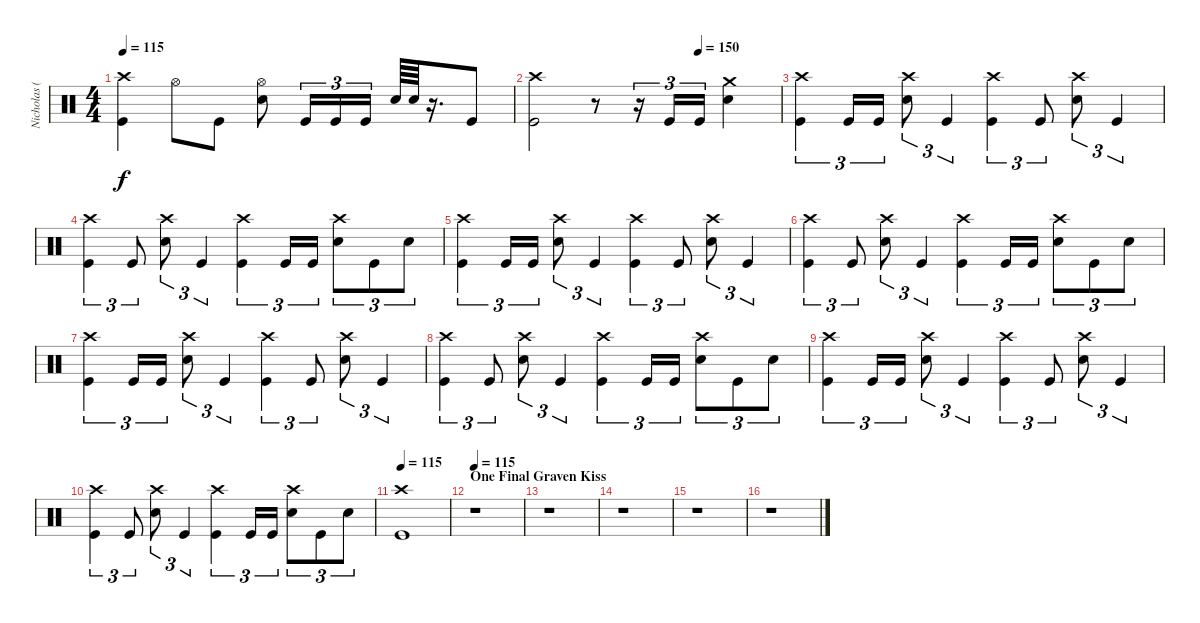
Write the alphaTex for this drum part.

\track ("Nicholas (Drums)" "Nicholas (") {instrument percussion}
\staff {score}
\articulation defaults
\ts (4 4)
\tempo 115
\clef neutral
\ks c
("Crash high (hit)" "Kick (hit)").4{dy f} "Hi-Hat (open)".8 "Kick (hit)".8 ("Hi-Hat (open)" "Electric Snare (hit)").8 "Kick (hit)".16{tu (3 2)} "Kick (hit)".16{tu (3 2)} "Kick (hit)".16{tu (3 2)} "Electric Snare (hit)".64 "Electric Snare (hit)".64 r.16{d} "Kick (hit)".8 |
\tempo (150 0.6666666666666666)
("Crash high (hit)" "Kick (hit)").2 r.8 r.16{tu (3 2)} "Kick (hit)".16{tu (3 2)} "Kick (hit)".16{tu (3 2)} ("Crash medium (hit)" "Electric Snare (hit)").4 |
("Crash high (hit)" "Kick (hit)").4{tu (3 2)} "Kick (hit)".16{tu (3 2)} "Kick (hit)".16{tu (3 2)} ("Crash high (hit)" "Electric Snare (hit)").8{tu (3 2)} "Kick (hit)".4{tu (3 2)} ("Crash high (hit)" "Kick (hit)").4{tu (3 2)} "Kick (hit)".8{tu (3 2)} ("Crash high (hit)" "Electric Snare (hit)").8{tu (3 2)} "Kick (hit)".4{tu (3 2)} |
("Crash high (hit)" "Kick (hit)").4{tu (3 2)} "Kick (hit)".8{tu (3 2)} ("Crash high (hit)" "Electric Snare (hit)").8{tu (3 2)} "Kick (hit)".4{tu (3 2)} ("Crash high (hit)" "Kick (hit)").4{tu (3 2)} "Kick (hit)".16{tu (3 2)} "Kick (hit)".16{tu (3 2)} ("Crash high (hit)" "Electric Snare (hit)").8{tu (3 2)} "Kick (hit)".8{tu (3 2)} "Electric Snare (hit)".8{tu (3 2)} |
("Crash high (hit)" "Kick (hit)").4{tu (3 2)} "Kick (hit)".16{tu (3 2)} "Kick (hit)".16{tu (3 2)} ("Crash high (hit)" "Electric Snare (hit)").8{tu (3 2)} "Kick (hit)".4{tu (3 2)} ("Crash high (hit)" "Kick (hit)").4{tu (3 2)} "Kick (hit)".8{tu (3 2)} ("Crash high (hit)" "Electric Snare (hit)").8{tu (3 2)} "Kick (hit)".4{tu (3 2)} |
("Crash high (hit)" "Kick (hit)").4{tu (3 2)} "Kick (hit)".8{tu (3 2)} ("Crash high (hit)" "Electric Snare (hit)").8{tu (3 2)} "Kick (hit)".4{tu (3 2)} ("Crash high (hit)" "Kick (hit)").4{tu (3 2)} "Kick (hit)".16{tu (3 2)} "Kick (hit)".16{tu (3 2)} ("Crash high (hit)" "Electric Snare (hit)").8{tu (3 2)} "Kick (hit)".8{tu (3 2)} "Electric Snare (hit)".8{tu (3 2)} |
("Crash high (hit)" "Kick (hit)").4{tu (3 2)} "Kick (hit)".16{tu (3 2)} "Kick (hit)".16{tu (3 2)} ("Crash high (hit)" "Electric Snare (hit)").8{tu (3 2)} "Kick (hit)".4{tu (3 2)} ("Crash high (hit)" "Kick (hit)").4{tu (3 2)} "Kick (hit)".8{tu (3 2)} ("Crash high (hit)" "Electric Snare (hit)").8{tu (3 2)} "Kick (hit)".4{tu (3 2)} |
("Crash high (hit)" "Kick (hit)").4{tu (3 2)} "Kick (hit)".8{tu (3 2)} ("Crash high (hit)" "Electric Snare (hit)").8{tu (3 2)} "Kick (hit)".4{tu (3 2)} ("Crash high (hit)" "Kick (hit)").4{tu (3 2)} "Kick (hit)".16{tu (3 2)} "Kick (hit)".16{tu (3 2)} ("Crash high (hit)" "Electric Snare (hit)").8{tu (3 2)} "Kick (hit)".8{tu (3 2)} "Electric Snare (hit)".8{tu (3 2)} |
("Crash high (hit)" "Kick (hit)").4{tu (3 2)} "Kick (hit)".16{tu (3 2)} "Kick (hit)".16{tu (3 2)} ("Crash high (hit)" "Electric Snare (hit)").8{tu (3 2)} "Kick (hit)".4{tu (3 2)} ("Crash high (hit)" "Kick (hit)").4{tu (3 2)} "Kick (hit)".8{tu (3 2)} ("Crash high (hit)" "Electric Snare (hit)").8{tu (3 2)} "Kick (hit)".4{tu (3 2)} |
("Crash high (hit)" "Kick (hit)").4{tu (3 2)} "Kick (hit)".8{tu (3 2)} ("Crash high (hit)" "Electric Snare (hit)").8{tu (3 2)} "Kick (hit)".4{tu (3 2)} ("Crash high (hit)" "Kick (hit)").4{tu (3 2)} "Kick (hit)".16{tu (3 2)} "Kick (hit)".16{tu (3 2)} ("Crash high (hit)" "Electric Snare (hit)").8{tu (3 2)} "Kick (hit)".8{tu (3 2)} "Electric Snare (hit)".8{tu (3 2)} |
\tempo 115
("Crash high (hit)" "Kick (hit)").1 |
\section ("" "One Final Graven Kiss")
\tempo 115
r.1 |
r.1 |
r.1 |
r.1 |
r.1
